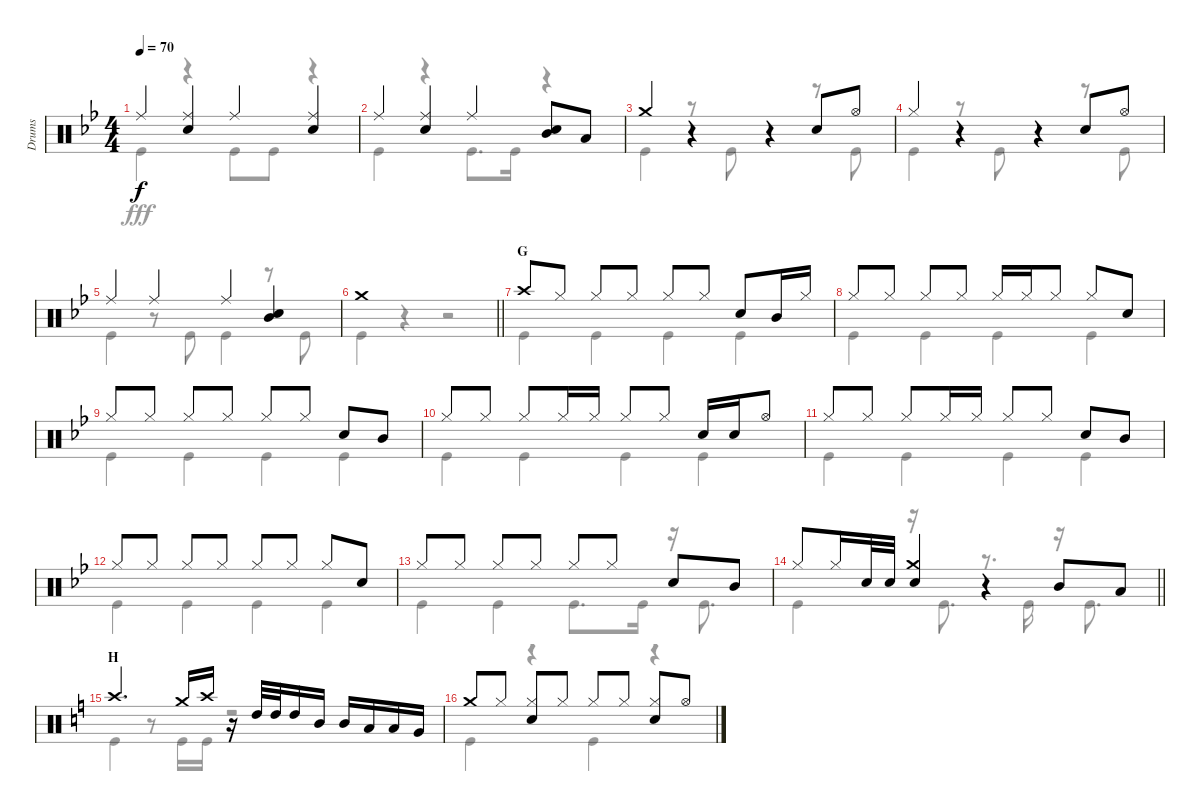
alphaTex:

\track ("Drums" "Drums") {instrument percussion}
\staff {score}
\articulation defaults
\voice
\ts (4 4)
\tempo 70
\clef neutral
\ks bb "Ride (middle)".4{dy f}
("Ride (middle)" "Snare (hit) 2").4 "Ride (middle)".4 ("Ride (middle)" "Snare (hit) 2").4 |
"Ride (middle)".4 ("Ride (middle)" "Snare (hit) 2").4 "Ride (middle)".4 ("Mid Tom (hit)" "Snare (hit) 2").8 "Low Tom (hit)".8 |
"Crash medium (hit)".4 r.4 r.4 "Snare (hit) 2".8 "Hi-Hat (open)".8 |
"Hi-Hat (closed)".4 r.4 r.4 "Snare (hit) 2".8 "Hi-Hat (open)".8 |
"Ride (middle)".4 "Ride (middle)".4 "Ride (middle)".4 ("Mid Tom (hit)" "Snare (hit) 2").4 |
\barLineRight lightlight "Crash medium (hit)".1
|
\section ("" "G")
"Crash high (hit)".8 "Hi-Hat (closed)".8 "Hi-Hat (closed)".8 "Hi-Hat (closed)".8 "Hi-Hat (closed)".8 "Hi-Hat (closed)".8 "Snare (hit) 2".8 "Mid Tom (hit)".16 "Hi-Hat (closed)".16 |
"Hi-Hat (closed)".8 "Hi-Hat (closed)".8 "Hi-Hat (closed)".8 "Hi-Hat (closed)".8 "Hi-Hat (closed)".16 "Hi-Hat (closed)".16 "Hi-Hat (closed)".8 "Hi-Hat (closed)".8 "Snare (hit) 2".8 |
"Hi-Hat (closed)".8 "Hi-Hat (closed)".8 "Hi-Hat (closed)".8 "Hi-Hat (closed)".8 "Hi-Hat (closed)".8 "Hi-Hat (closed)".8 "Snare (hit) 2".8 "Mid Tom (hit)".8 |
"Hi-Hat (closed)".8 "Hi-Hat (closed)".8 "Hi-Hat (closed)".8 "Hi-Hat (closed)".16 "Hi-Hat (closed)".16 "Hi-Hat (closed)".8 "Hi-Hat (closed)".8 "Snare (hit) 2".16 "Snare (hit) 2".16 "Hi-Hat (open)".8 |
"Hi-Hat (closed)".8 "Hi-Hat (closed)".8 "Hi-Hat (closed)".8 "Hi-Hat (closed)".16 "Hi-Hat (closed)".16 "Hi-Hat (closed)".8 "Hi-Hat (closed)".8 "Snare (hit) 2".8 "Mid Tom (hit)".8 |
"Hi-Hat (closed)".8 "Hi-Hat (closed)".8 "Hi-Hat (closed)".8 "Hi-Hat (closed)".8 "Hi-Hat (closed)".8 "Hi-Hat (closed)".8 "Hi-Hat (closed)".8 "Snare (hit) 2".8 |
"Hi-Hat (closed)".8 "Hi-Hat (closed)".8 "Hi-Hat (closed)".8 "Hi-Hat (closed)".8 "Hi-Hat (closed)".8 "Hi-Hat (closed)".8 "Snare (hit) 2".8 "Mid Tom (hit)".8 |
\barLineRight lightlight "Hi-Hat (closed)".8 "Hi-Hat (closed)".16 "Snare (hit) 2".32 "Snare (hit) 2".32
("Crash medium (hit)" "Snare (hit) 2").4 r.4 "Mid Tom (hit)".8 "Low Tom (hit)".8 |
\section ("" "H")
\ks c "Crash high (hit)".4{d} "Crash medium (hit)".16 "Crash high (hit)".16
r.16 "High Tom (hit)".32 "High Tom (hit)".32 "High Tom (hit)".16 "Mid Tom (hit)".16 "Mid Tom (hit)".16 "Low Tom (hit)".16 "Low Tom (hit)".16 "Very Low Tom (hit)".16 |
"Crash medium (hit)".8 "Hi-Hat (closed)".8 ("Hi-Hat (closed)" "Snare (hit) 2").8 "Hi-Hat (closed)".8 "Hi-Hat (closed)".8 "Hi-Hat (closed)".8 ("Hi-Hat (closed)" "Snare (hit) 2").8 "Hi-Hat (open)".8
\voice
\clef neutral
\ottava regular
\simile none
\ks bb "Kick (hit)".4{dy fff}
r.4 "Kick (hit)".8 "Kick (hit)".8 r.4 |
"Kick (hit)".4 r.4 "Kick (hit)".8{d} "Kick (hit)".16 r.4 |
"Kick (hit)".4 r.8 "Kick (hit)".8 r.4 r.8 "Kick (hit)".8 |
"Kick (hit)".4 r.8 "Kick (hit)".8 r.4 r.8 "Kick (hit)".8 |
"Kick (hit)".4 r.8 "Kick (hit)".8 "Kick (hit)".4 r.8 "Kick (hit)".8 |
\barLineRight lightlight "Kick (hit)".4
r.4 r.2 |
"Kick (hit)".4 "Kick (hit)".4 "Kick (hit)".4 "Kick (hit)".4 |
"Kick (hit)".4 "Kick (hit)".4 "Kick (hit)".4 "Kick (hit)".4 |
"Kick (hit)".4 "Kick (hit)".4 "Kick (hit)".4 "Kick (hit)".4 |
"Kick (hit)".4 "Kick (hit)".4 "Kick (hit)".4 "Kick (hit)".4 |
"Kick (hit)".4 "Kick (hit)".4 "Kick (hit)".4 "Kick (hit)".4 |
"Kick (hit)".4 "Kick (hit)".4 "Kick (hit)".4 "Kick (hit)".4 |
"Kick (hit)".4 "Kick (hit)".4 "Kick (hit)".8{d} "Kick (hit)".16 r.16 "Kick (hit)".8{d} |
\barLineRight lightlight "Kick (hit)".4
r.16 "Kick (hit)".8{d} r.8{d} "Kick (hit)".16 r.16 "Kick (hit)".8{d} |
\ks c "Kick (hit)".4
r.8 "Kick (hit)".16 "Kick (hit)".16 r.2 |
"Kick (hit)".4 r.4 "Kick (hit)".4 r.4
